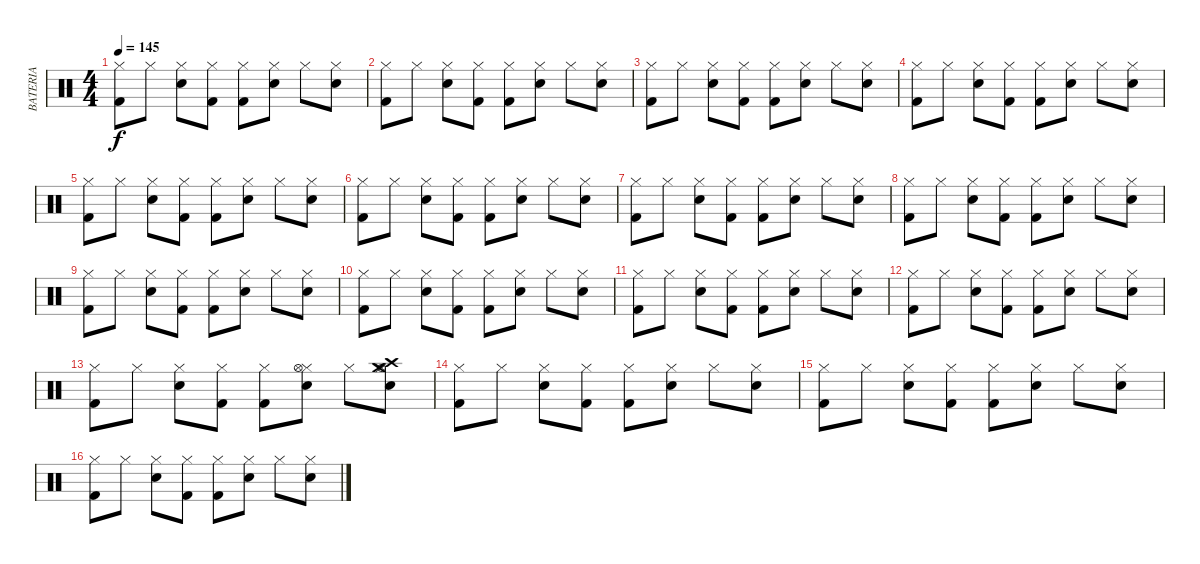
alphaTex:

\track ("BATERIA" "BATERIA") {instrument percussion}
\staff {score}
\articulation defaults
\ts (4 4)
\tempo 145
\clef neutral
\ks c
("Kick (hit) 2" "Hi-Hat (closed)").8{dy f} "Hi-Hat (closed)".8 ("Snare (hit) 2" "Hi-Hat (closed)").8 ("Kick (hit) 2" "Hi-Hat (closed)").8 ("Kick (hit) 2" "Hi-Hat (closed)").8 ("Snare (hit) 2" "Hi-Hat (closed)").8 "Hi-Hat (closed)".8 ("Snare (hit) 2" "Hi-Hat (closed)").8 |
("Kick (hit) 2" "Hi-Hat (closed)").8 "Hi-Hat (closed)".8 ("Snare (hit) 2" "Hi-Hat (closed)").8 ("Kick (hit) 2" "Hi-Hat (closed)").8 ("Kick (hit) 2" "Hi-Hat (closed)").8 ("Snare (hit) 2" "Hi-Hat (closed)").8 "Hi-Hat (closed)".8 ("Snare (hit) 2" "Hi-Hat (closed)").8 |
("Kick (hit) 2" "Hi-Hat (closed)").8 "Hi-Hat (closed)".8 ("Snare (hit) 2" "Hi-Hat (closed)").8 ("Kick (hit) 2" "Hi-Hat (closed)").8 ("Kick (hit) 2" "Hi-Hat (closed)").8 ("Snare (hit) 2" "Hi-Hat (closed)").8 "Hi-Hat (closed)".8 ("Snare (hit) 2" "Hi-Hat (closed)").8 |
("Kick (hit) 2" "Hi-Hat (closed)").8 "Hi-Hat (closed)".8 ("Snare (hit) 2" "Hi-Hat (closed)").8 ("Kick (hit) 2" "Hi-Hat (closed)").8 ("Kick (hit) 2" "Hi-Hat (closed)").8 ("Snare (hit) 2" "Hi-Hat (closed)").8 "Hi-Hat (closed)".8 ("Snare (hit) 2" "Hi-Hat (closed)").8 |
("Kick (hit) 2" "Hi-Hat (closed)").8 "Hi-Hat (closed)".8 ("Snare (hit) 2" "Hi-Hat (closed)").8 ("Kick (hit) 2" "Hi-Hat (closed)").8 ("Kick (hit) 2" "Hi-Hat (closed)").8 ("Snare (hit) 2" "Hi-Hat (closed)").8 "Hi-Hat (closed)".8 ("Snare (hit) 2" "Hi-Hat (closed)").8 |
("Kick (hit) 2" "Hi-Hat (closed)").8 "Hi-Hat (closed)".8 ("Snare (hit) 2" "Hi-Hat (closed)").8 ("Kick (hit) 2" "Hi-Hat (closed)").8 ("Kick (hit) 2" "Hi-Hat (closed)").8 ("Snare (hit) 2" "Hi-Hat (closed)").8 "Hi-Hat (closed)".8 ("Snare (hit) 2" "Hi-Hat (closed)").8 |
("Kick (hit) 2" "Hi-Hat (closed)").8 "Hi-Hat (closed)".8 ("Snare (hit) 2" "Hi-Hat (closed)").8 ("Kick (hit) 2" "Hi-Hat (closed)").8 ("Kick (hit) 2" "Hi-Hat (closed)").8 ("Snare (hit) 2" "Hi-Hat (closed)").8 "Hi-Hat (closed)".8 ("Snare (hit) 2" "Hi-Hat (closed)").8 |
("Kick (hit) 2" "Hi-Hat (closed)").8 "Hi-Hat (closed)".8 ("Snare (hit) 2" "Hi-Hat (closed)").8 ("Kick (hit) 2" "Hi-Hat (closed)").8 ("Kick (hit) 2" "Hi-Hat (closed)").8 ("Snare (hit) 2" "Hi-Hat (closed)").8 "Hi-Hat (closed)".8 ("Snare (hit) 2" "Hi-Hat (closed)").8 |
("Kick (hit) 2" "Hi-Hat (closed)").8 "Hi-Hat (closed)".8 ("Snare (hit) 2" "Hi-Hat (closed)").8 ("Kick (hit) 2" "Hi-Hat (closed)").8 ("Kick (hit) 2" "Hi-Hat (closed)").8 ("Snare (hit) 2" "Hi-Hat (closed)").8 "Hi-Hat (closed)".8 ("Snare (hit) 2" "Hi-Hat (closed)").8 |
("Kick (hit) 2" "Hi-Hat (closed)").8 "Hi-Hat (closed)".8 ("Snare (hit) 2" "Hi-Hat (closed)").8 ("Kick (hit) 2" "Hi-Hat (closed)").8 ("Kick (hit) 2" "Hi-Hat (closed)").8 ("Snare (hit) 2" "Hi-Hat (closed)").8 "Hi-Hat (closed)".8 ("Snare (hit) 2" "Hi-Hat (closed)").8 |
("Kick (hit) 2" "Hi-Hat (closed)").8 "Hi-Hat (closed)".8 ("Snare (hit) 2" "Hi-Hat (closed)").8 ("Kick (hit) 2" "Hi-Hat (closed)").8 ("Kick (hit) 2" "Hi-Hat (closed)").8 ("Snare (hit) 2" "Hi-Hat (closed)").8 "Hi-Hat (closed)".8 ("Snare (hit) 2" "Hi-Hat (closed)").8 |
("Kick (hit) 2" "Hi-Hat (closed)").8 "Hi-Hat (closed)".8 ("Snare (hit) 2" "Hi-Hat (closed)").8 ("Kick (hit) 2" "Hi-Hat (closed)").8 ("Kick (hit) 2" "Hi-Hat (closed)").8 ("Snare (hit) 2" "Hi-Hat (closed)").8 "Hi-Hat (closed)".8 ("Snare (hit) 2" "Hi-Hat (closed)").8 |
("Kick (hit) 2" "Hi-Hat (closed)").8 "Hi-Hat (closed)".8 ("Snare (hit) 2" "Hi-Hat (closed)").8 ("Kick (hit) 2" "Hi-Hat (closed)").8 ("Kick (hit) 2" "Hi-Hat (closed)").8 ("Snare (hit) 2" "Hi-Hat (closed)" "Hi-Hat (open)").8 "Hi-Hat (closed)".8 ("Snare (hit) 2" "Hi-Hat (closed)" "Crash medium (hit)" "Hi-Hat (open)" "Crash high (hit)").8 |
("Kick (hit) 2" "Hi-Hat (closed)").8 "Hi-Hat (closed)".8 ("Snare (hit) 2" "Hi-Hat (closed)").8 ("Kick (hit) 2" "Hi-Hat (closed)").8 ("Kick (hit) 2" "Hi-Hat (closed)").8 ("Snare (hit) 2" "Hi-Hat (closed)").8 "Hi-Hat (closed)".8 ("Snare (hit) 2" "Hi-Hat (closed)").8 |
("Kick (hit) 2" "Hi-Hat (closed)").8 "Hi-Hat (closed)".8 ("Snare (hit) 2" "Hi-Hat (closed)").8 ("Kick (hit) 2" "Hi-Hat (closed)").8 ("Kick (hit) 2" "Hi-Hat (closed)").8 ("Snare (hit) 2" "Hi-Hat (closed)").8 "Hi-Hat (closed)".8 ("Snare (hit) 2" "Hi-Hat (closed)").8 |
("Kick (hit) 2" "Hi-Hat (closed)").8 "Hi-Hat (closed)".8 ("Snare (hit) 2" "Hi-Hat (closed)").8 ("Kick (hit) 2" "Hi-Hat (closed)").8 ("Kick (hit) 2" "Hi-Hat (closed)").8 ("Snare (hit) 2" "Hi-Hat (closed)").8 "Hi-Hat (closed)".8 ("Snare (hit) 2" "Hi-Hat (closed)").8
